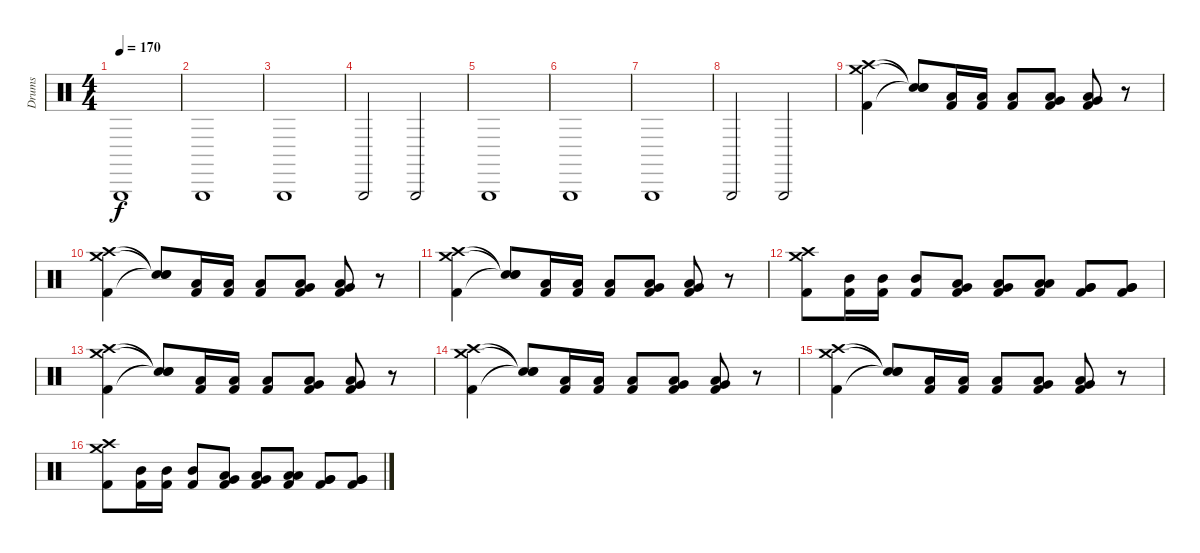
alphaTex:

\track ("Drums" "Drums") {instrument percussion}
\staff {score}
\articulation defaults
\ts (4 4)
\tempo 170
\clef neutral
\ks c "Triangle (hit)".1{dy f}
|
"Triangle (hit)".1 |
"Triangle (hit)".1 |
"Triangle (hit)".2 "Triangle (hit)".2 |
"Triangle (hit)".1 |
"Triangle (hit)".1 |
"Triangle (hit)".1 |
"Triangle (hit)".2 "Triangle (hit)".2 |
("Crash medium (hit)" "Crash high (hit)" "Kick (hit) 2").4 ("Snare (hit)"{t} "Snare (hit)"{t} "Snare (hit)"{t}).8 ("Low Tom (hit)" "Kick (hit) 2").16 ("Low Tom (hit)" "Kick (hit) 2").16 ("Low Tom (hit)" "Kick (hit) 2").8 ("Low Tom (hit)" "Very Low Tom (hit)" "Kick (hit) 2").8 ("Low Tom (hit)" "Very Low Tom (hit)" "Kick (hit) 2").8 r.8 |
("Crash medium (hit)" "Crash high (hit)" "Kick (hit) 2").4 ("Snare (hit)"{t} "Snare (hit)"{t} "Snare (hit)"{t}).8 ("Low Tom (hit)" "Kick (hit) 2").16 ("Low Tom (hit)" "Kick (hit) 2").16 ("Low Tom (hit)" "Kick (hit) 2").8 ("Low Tom (hit)" "Very Low Tom (hit)" "Kick (hit) 2").8 ("Low Tom (hit)" "Very Low Tom (hit)" "Kick (hit) 2").8 r.8 |
("Crash medium (hit)" "Crash high (hit)" "Kick (hit) 2").4 ("Snare (hit)"{t} "Snare (hit)"{t} "Snare (hit)"{t}).8 ("Low Tom (hit)" "Kick (hit) 2").16 ("Low Tom (hit)" "Kick (hit) 2").16 ("Low Tom (hit)" "Kick (hit) 2").8 ("Low Tom (hit)" "Very Low Tom (hit)" "Kick (hit) 2").8 ("Low Tom (hit)" "Very Low Tom (hit)" "Kick (hit) 2").8 r.8 |
("Crash medium (hit)" "Crash high (hit)" "Kick (hit) 2").8 ("Mid Tom (hit)" "Kick (hit) 2").16 ("Mid Tom (hit)" "Kick (hit) 2").16 ("Mid Tom (hit)" "Kick (hit) 2").8 ("Low Tom (hit)" "Very Low Tom (hit)" "Kick (hit) 2").8 ("Low Tom (hit)" "Very Low Tom (hit)" "Kick (hit) 2").8 ("Low Tom (hit)" "Low Tom (hit)" "Kick (hit) 2").8 ("Very Low Tom (hit)" "Very Low Tom (hit)" "Kick (hit) 2").8 ("Very Low Tom (hit)" "Very Low Tom (hit)" "Kick (hit) 2").8 |
("Crash medium (hit)" "Crash high (hit)" "Kick (hit) 2").4 ("Snare (hit)"{t} "Snare (hit)"{t} "Snare (hit)"{t}).8 ("Low Tom (hit)" "Kick (hit) 2").16 ("Low Tom (hit)" "Kick (hit) 2").16 ("Low Tom (hit)" "Kick (hit) 2").8 ("Low Tom (hit)" "Very Low Tom (hit)" "Kick (hit) 2").8 ("Low Tom (hit)" "Very Low Tom (hit)" "Kick (hit) 2").8 r.8 |
("Crash medium (hit)" "Crash high (hit)" "Kick (hit) 2").4 ("Snare (hit)"{t} "Snare (hit)"{t} "Snare (hit)"{t}).8 ("Low Tom (hit)" "Kick (hit) 2").16 ("Low Tom (hit)" "Kick (hit) 2").16 ("Low Tom (hit)" "Kick (hit) 2").8 ("Low Tom (hit)" "Very Low Tom (hit)" "Kick (hit) 2").8 ("Low Tom (hit)" "Very Low Tom (hit)" "Kick (hit) 2").8 r.8 |
("Crash medium (hit)" "Crash high (hit)" "Kick (hit) 2").4 ("Snare (hit)"{t} "Snare (hit)"{t} "Snare (hit)"{t}).8 ("Low Tom (hit)" "Kick (hit) 2").16 ("Low Tom (hit)" "Kick (hit) 2").16 ("Low Tom (hit)" "Kick (hit) 2").8 ("Low Tom (hit)" "Very Low Tom (hit)" "Kick (hit) 2").8 ("Low Tom (hit)" "Very Low Tom (hit)" "Kick (hit) 2").8 r.8 |
("Crash medium (hit)" "Crash high (hit)" "Kick (hit) 2").8 ("Mid Tom (hit)" "Kick (hit) 2").16 ("Mid Tom (hit)" "Kick (hit) 2").16 ("Mid Tom (hit)" "Kick (hit) 2").8 ("Low Tom (hit)" "Very Low Tom (hit)" "Kick (hit) 2").8 ("Low Tom (hit)" "Very Low Tom (hit)" "Kick (hit) 2").8 ("Low Tom (hit)" "Low Tom (hit)" "Kick (hit) 2").8 ("Very Low Tom (hit)" "Very Low Tom (hit)" "Kick (hit) 2").8 ("Very Low Tom (hit)" "Very Low Tom (hit)" "Kick (hit) 2").8
